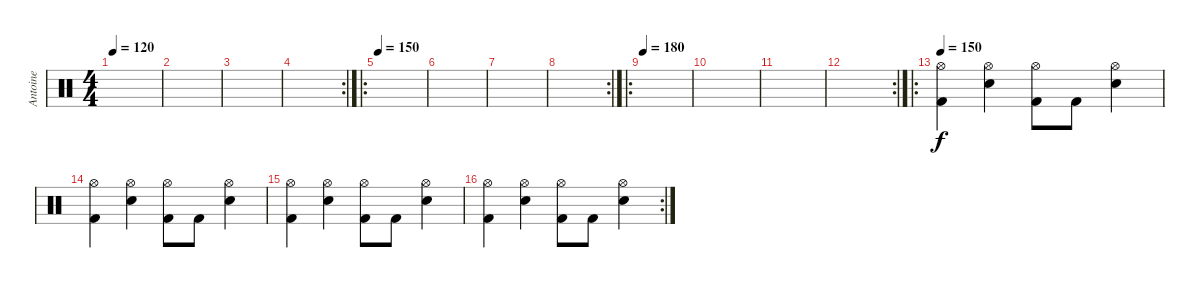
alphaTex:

\track ("Antoine" "Antoine") {instrument percussion}
\staff {score}
\articulation defaults
\ts (4 4)
\tempo 120
\tempo 150
\tempo 120
\clef neutral
\ks c
|
|
|
\rc 2
|
\ro
\tempo 150
|
|
|
\rc 2
|
\ro
\tempo 180
|
|
|
\rc 2
|
\ro
\tempo 150
("Hi-Hat (open)" "Kick (hit) 2").4 ("Hi-Hat (open)" "Electric Snare (hit)").4 ("Hi-Hat (open)" "Kick (hit) 2").8 "Kick (hit) 2".8 ("Hi-Hat (open)" "Electric Snare (hit)").4 |
("Hi-Hat (open)" "Kick (hit) 2").4 ("Hi-Hat (open)" "Electric Snare (hit)").4 ("Hi-Hat (open)" "Kick (hit) 2").8 "Kick (hit) 2".8 ("Hi-Hat (open)" "Electric Snare (hit)").4 |
("Hi-Hat (open)" "Kick (hit) 2").4 ("Hi-Hat (open)" "Electric Snare (hit)").4 ("Hi-Hat (open)" "Kick (hit) 2").8 "Kick (hit) 2".8 ("Hi-Hat (open)" "Electric Snare (hit)").4 |
\rc 2
("Hi-Hat (open)" "Kick (hit) 2").4 ("Hi-Hat (open)" "Electric Snare (hit)").4 ("Hi-Hat (open)" "Kick (hit) 2").8 "Kick (hit) 2".8 ("Hi-Hat (open)" "Electric Snare (hit)").4
